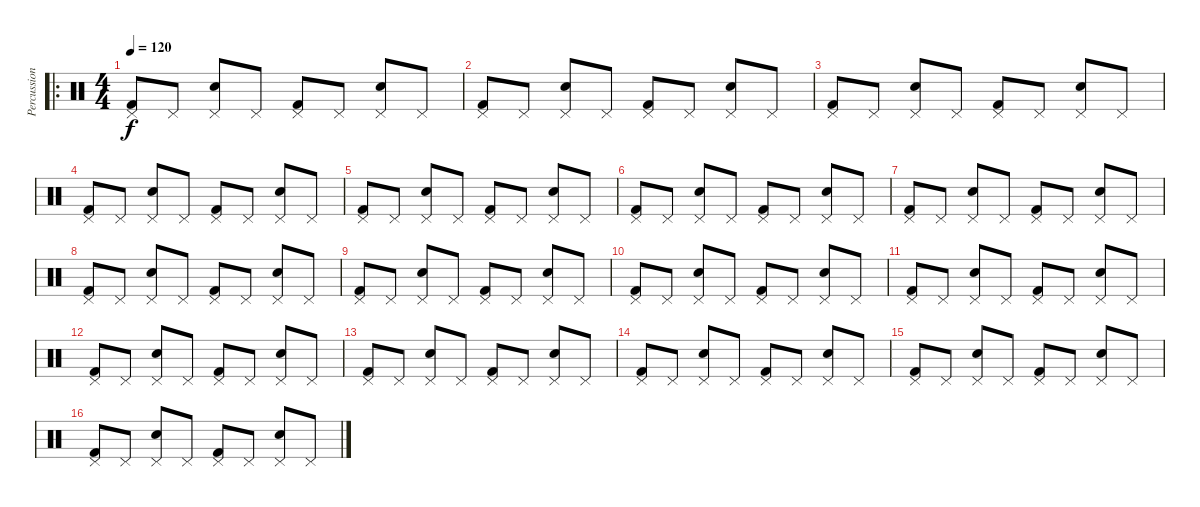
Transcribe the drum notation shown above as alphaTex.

\track ("Percussion" "Percussion") {instrument percussion}
\staff {score}
\articulation defaults
\ro
\ts (4 4)
\tempo 120
\clef neutral
\ks c
("Pedal Hi-Hat (hit)" "Kick (hit) 2").8{dy f} "Pedal Hi-Hat (hit)".8 ("Pedal Hi-Hat (hit)" "Snare (hit) 2").8 "Pedal Hi-Hat (hit)".8 ("Pedal Hi-Hat (hit)" "Kick (hit) 2").8 "Pedal Hi-Hat (hit)".8 ("Pedal Hi-Hat (hit)" "Snare (hit) 2").8 "Pedal Hi-Hat (hit)".8 |
("Pedal Hi-Hat (hit)" "Kick (hit) 2").8 "Pedal Hi-Hat (hit)".8 ("Pedal Hi-Hat (hit)" "Snare (hit) 2").8 "Pedal Hi-Hat (hit)".8 ("Pedal Hi-Hat (hit)" "Kick (hit) 2").8 "Pedal Hi-Hat (hit)".8 ("Pedal Hi-Hat (hit)" "Snare (hit) 2").8 "Pedal Hi-Hat (hit)".8 |
("Pedal Hi-Hat (hit)" "Kick (hit) 2").8 "Pedal Hi-Hat (hit)".8 ("Pedal Hi-Hat (hit)" "Snare (hit) 2").8 "Pedal Hi-Hat (hit)".8 ("Pedal Hi-Hat (hit)" "Kick (hit) 2").8 "Pedal Hi-Hat (hit)".8 ("Pedal Hi-Hat (hit)" "Snare (hit) 2").8 "Pedal Hi-Hat (hit)".8 |
("Pedal Hi-Hat (hit)" "Kick (hit) 2").8 "Pedal Hi-Hat (hit)".8 ("Pedal Hi-Hat (hit)" "Snare (hit) 2").8 "Pedal Hi-Hat (hit)".8 ("Pedal Hi-Hat (hit)" "Kick (hit) 2").8 "Pedal Hi-Hat (hit)".8 ("Pedal Hi-Hat (hit)" "Snare (hit) 2").8 "Pedal Hi-Hat (hit)".8 |
("Pedal Hi-Hat (hit)" "Kick (hit) 2").8 "Pedal Hi-Hat (hit)".8 ("Pedal Hi-Hat (hit)" "Snare (hit) 2").8 "Pedal Hi-Hat (hit)".8 ("Pedal Hi-Hat (hit)" "Kick (hit) 2").8 "Pedal Hi-Hat (hit)".8 ("Pedal Hi-Hat (hit)" "Snare (hit) 2").8 "Pedal Hi-Hat (hit)".8 |
("Pedal Hi-Hat (hit)" "Kick (hit) 2").8 "Pedal Hi-Hat (hit)".8 ("Pedal Hi-Hat (hit)" "Snare (hit) 2").8 "Pedal Hi-Hat (hit)".8 ("Pedal Hi-Hat (hit)" "Kick (hit) 2").8 "Pedal Hi-Hat (hit)".8 ("Pedal Hi-Hat (hit)" "Snare (hit) 2").8 "Pedal Hi-Hat (hit)".8 |
("Pedal Hi-Hat (hit)" "Kick (hit) 2").8 "Pedal Hi-Hat (hit)".8 ("Pedal Hi-Hat (hit)" "Snare (hit) 2").8 "Pedal Hi-Hat (hit)".8 ("Pedal Hi-Hat (hit)" "Kick (hit) 2").8 "Pedal Hi-Hat (hit)".8 ("Pedal Hi-Hat (hit)" "Snare (hit) 2").8 "Pedal Hi-Hat (hit)".8 |
("Pedal Hi-Hat (hit)" "Kick (hit) 2").8 "Pedal Hi-Hat (hit)".8 ("Pedal Hi-Hat (hit)" "Snare (hit) 2").8 "Pedal Hi-Hat (hit)".8 ("Pedal Hi-Hat (hit)" "Kick (hit) 2").8 "Pedal Hi-Hat (hit)".8 ("Pedal Hi-Hat (hit)" "Snare (hit) 2").8 "Pedal Hi-Hat (hit)".8 |
("Pedal Hi-Hat (hit)" "Kick (hit) 2").8 "Pedal Hi-Hat (hit)".8 ("Pedal Hi-Hat (hit)" "Snare (hit) 2").8 "Pedal Hi-Hat (hit)".8 ("Pedal Hi-Hat (hit)" "Kick (hit) 2").8 "Pedal Hi-Hat (hit)".8 ("Pedal Hi-Hat (hit)" "Snare (hit) 2").8 "Pedal Hi-Hat (hit)".8 |
("Pedal Hi-Hat (hit)" "Kick (hit) 2").8 "Pedal Hi-Hat (hit)".8 ("Pedal Hi-Hat (hit)" "Snare (hit) 2").8 "Pedal Hi-Hat (hit)".8 ("Pedal Hi-Hat (hit)" "Kick (hit) 2").8 "Pedal Hi-Hat (hit)".8 ("Pedal Hi-Hat (hit)" "Snare (hit) 2").8 "Pedal Hi-Hat (hit)".8 |
("Pedal Hi-Hat (hit)" "Kick (hit) 2").8 "Pedal Hi-Hat (hit)".8 ("Pedal Hi-Hat (hit)" "Snare (hit) 2").8 "Pedal Hi-Hat (hit)".8 ("Pedal Hi-Hat (hit)" "Kick (hit) 2").8 "Pedal Hi-Hat (hit)".8 ("Pedal Hi-Hat (hit)" "Snare (hit) 2").8 "Pedal Hi-Hat (hit)".8 |
("Pedal Hi-Hat (hit)" "Kick (hit) 2").8 "Pedal Hi-Hat (hit)".8 ("Pedal Hi-Hat (hit)" "Snare (hit) 2").8 "Pedal Hi-Hat (hit)".8 ("Pedal Hi-Hat (hit)" "Kick (hit) 2").8 "Pedal Hi-Hat (hit)".8 ("Pedal Hi-Hat (hit)" "Snare (hit) 2").8 "Pedal Hi-Hat (hit)".8 |
("Pedal Hi-Hat (hit)" "Kick (hit) 2").8 "Pedal Hi-Hat (hit)".8 ("Pedal Hi-Hat (hit)" "Snare (hit) 2").8 "Pedal Hi-Hat (hit)".8 ("Pedal Hi-Hat (hit)" "Kick (hit) 2").8 "Pedal Hi-Hat (hit)".8 ("Pedal Hi-Hat (hit)" "Snare (hit) 2").8 "Pedal Hi-Hat (hit)".8 |
("Pedal Hi-Hat (hit)" "Kick (hit) 2").8 "Pedal Hi-Hat (hit)".8 ("Pedal Hi-Hat (hit)" "Snare (hit) 2").8 "Pedal Hi-Hat (hit)".8 ("Pedal Hi-Hat (hit)" "Kick (hit) 2").8 "Pedal Hi-Hat (hit)".8 ("Pedal Hi-Hat (hit)" "Snare (hit) 2").8 "Pedal Hi-Hat (hit)".8 |
("Pedal Hi-Hat (hit)" "Kick (hit) 2").8 "Pedal Hi-Hat (hit)".8 ("Pedal Hi-Hat (hit)" "Snare (hit) 2").8 "Pedal Hi-Hat (hit)".8 ("Pedal Hi-Hat (hit)" "Kick (hit) 2").8 "Pedal Hi-Hat (hit)".8 ("Pedal Hi-Hat (hit)" "Snare (hit) 2").8 "Pedal Hi-Hat (hit)".8 |
("Pedal Hi-Hat (hit)" "Kick (hit) 2").8 "Pedal Hi-Hat (hit)".8 ("Pedal Hi-Hat (hit)" "Snare (hit) 2").8 "Pedal Hi-Hat (hit)".8 ("Pedal Hi-Hat (hit)" "Kick (hit) 2").8 "Pedal Hi-Hat (hit)".8 ("Pedal Hi-Hat (hit)" "Snare (hit) 2").8 "Pedal Hi-Hat (hit)".8
